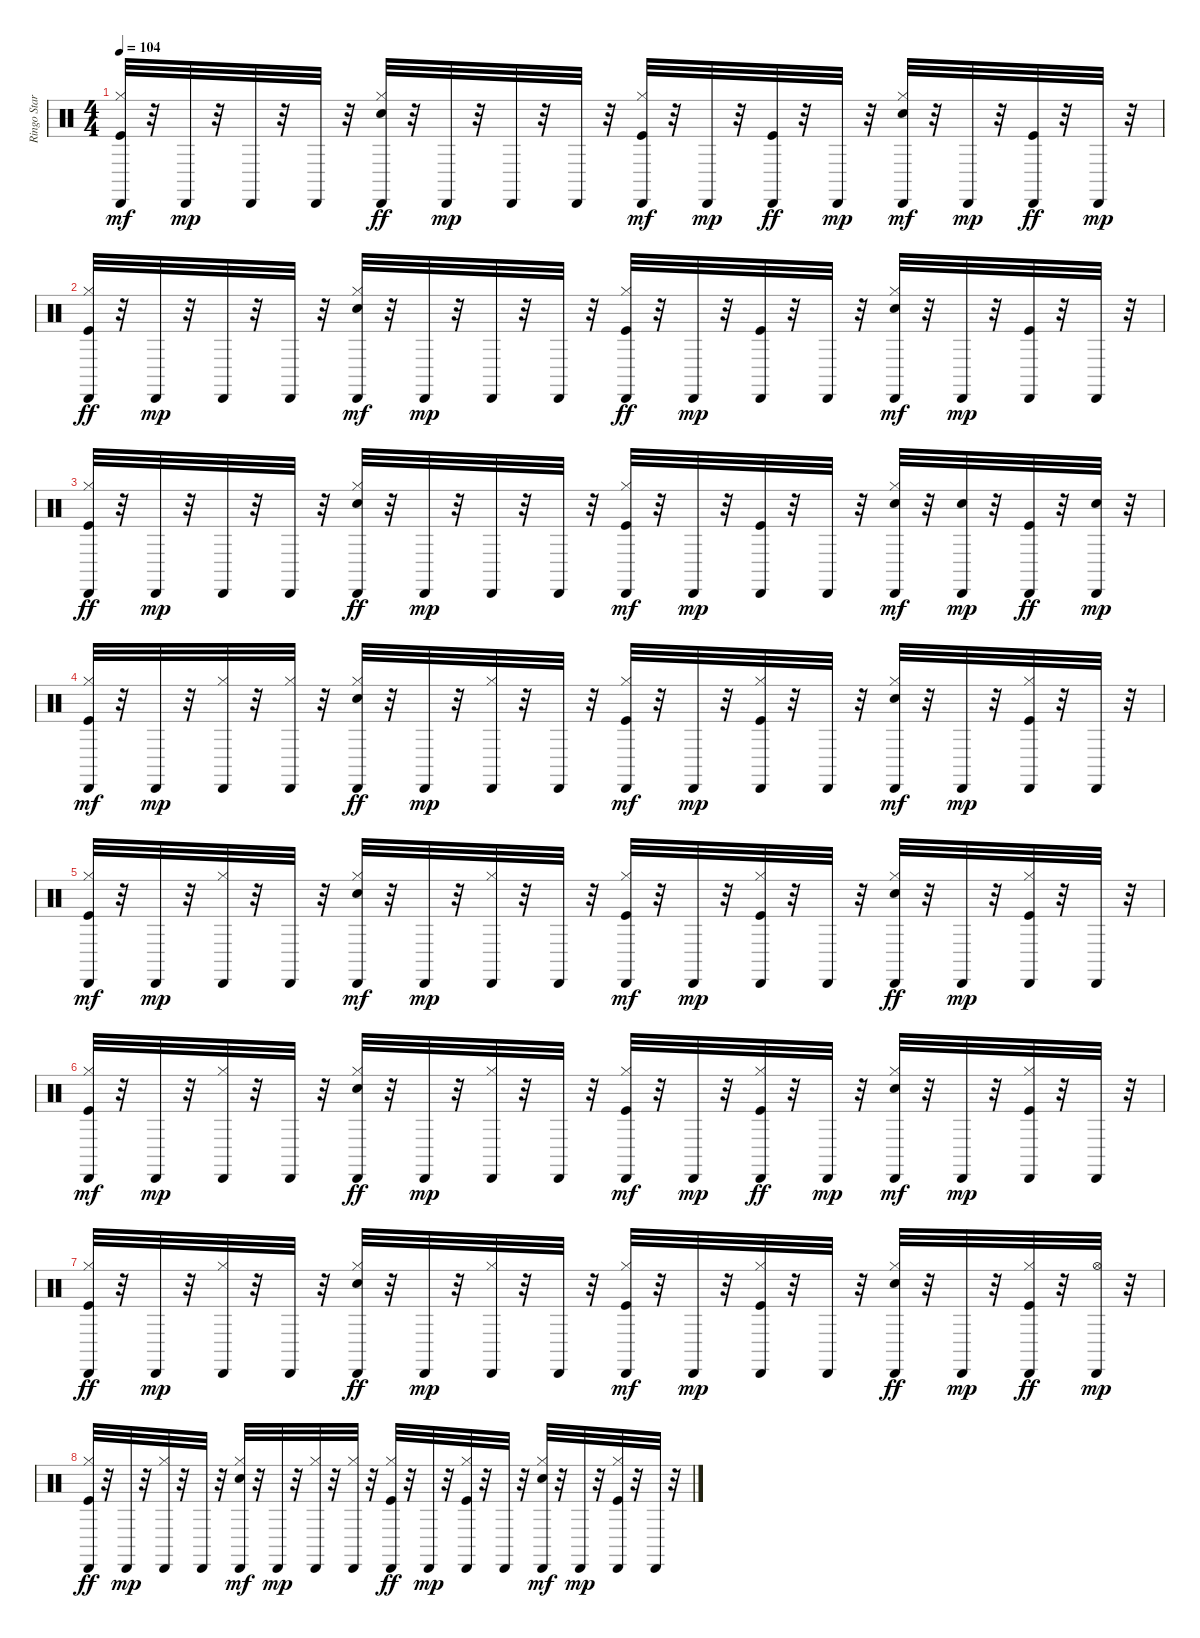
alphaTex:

\track ("Ringo Starr - Drums" "Ringo Star") {instrument percussion}
\staff {score}
\articulation defaults
\ts (4 4)
\tempo 104
\clef neutral
\ks c
("Hi-Hat (closed)" "Kick (hit)" "Cabasa (hit)").32{dy mf} r.32 "Cabasa (hit)".32{dy mp} r.32 "Cabasa (hit)".32 r.32 "Cabasa (hit)".32 r.32 ("Hi-Hat (closed)" "Cabasa (hit)" "Snare (hit) 2").32{dy ff} r.32 "Cabasa (hit)".32{dy mp} r.32 "Cabasa (hit)".32 r.32 "Cabasa (hit)".32 r.32 ("Hi-Hat (closed)" "Kick (hit)" "Cabasa (hit)").32{dy mf} r.32 "Cabasa (hit)".32{dy mp} r.32 ("Cabasa (hit)" "Kick (hit)").32{dy ff} r.32 "Cabasa (hit)".32{dy mp} r.32 ("Hi-Hat (closed)" "Snare (hit) 2" "Cabasa (hit)").32{dy mf} r.32 "Cabasa (hit)".32{dy mp} r.32 ("Cabasa (hit)" "Kick (hit)").32{dy ff} r.32 "Cabasa (hit)".32{dy mp} r.32 |
("Hi-Hat (closed)" "Cabasa (hit)" "Kick (hit)").32{dy ff} r.32 "Cabasa (hit)".32{dy mp} r.32 "Cabasa (hit)".32 r.32 "Cabasa (hit)".32 r.32 ("Hi-Hat (closed)" "Snare (hit) 2" "Cabasa (hit)").32{dy mf} r.32 "Cabasa (hit)".32{dy mp} r.32 "Cabasa (hit)".32 r.32 "Cabasa (hit)".32 r.32 ("Hi-Hat (closed)" "Cabasa (hit)" "Kick (hit)").32{dy ff} r.32 "Cabasa (hit)".32{dy mp} r.32 ("Kick (hit)" "Cabasa (hit)").32 r.32 "Cabasa (hit)".32 r.32 ("Hi-Hat (closed)" "Snare (hit) 2" "Cabasa (hit)").32{dy mf} r.32 "Cabasa (hit)".32{dy mp} r.32 ("Kick (hit)" "Cabasa (hit)").32 r.32 "Cabasa (hit)".32 r.32 |
("Hi-Hat (closed)" "Cabasa (hit)" "Kick (hit)").32{dy ff} r.32 "Cabasa (hit)".32{dy mp} r.32 "Cabasa (hit)".32 r.32 "Cabasa (hit)".32 r.32 ("Hi-Hat (closed)" "Cabasa (hit)" "Snare (hit) 2").32{dy ff} r.32 "Cabasa (hit)".32{dy mp} r.32 "Cabasa (hit)".32 r.32 "Cabasa (hit)".32 r.32 ("Hi-Hat (closed)" "Kick (hit)" "Cabasa (hit)").32{dy mf} r.32 "Cabasa (hit)".32{dy mp} r.32 ("Kick (hit)" "Cabasa (hit)").32 r.32 "Cabasa (hit)".32 r.32 ("Hi-Hat (closed)" "Snare (hit) 2" "Cabasa (hit)").32{dy mf} r.32 ("Snare (hit) 2" "Cabasa (hit)").32{dy mp} r.32 ("Cabasa (hit)" "Kick (hit)").32{dy ff} r.32 ("Snare (hit) 2" "Cabasa (hit)").32{dy mp} r.32 |
("Hi-Hat (closed)" "Kick (hit)" "Cabasa (hit)").32{dy mf} r.32 "Cabasa (hit)".32{dy mp} r.32 ("Hi-Hat (closed)" "Cabasa (hit)").32 r.32 ("Hi-Hat (closed)" "Cabasa (hit)").32 r.32 ("Hi-Hat (closed)" "Cabasa (hit)" "Snare (hit) 2").32{dy ff} r.32 "Cabasa (hit)".32{dy mp} r.32 ("Hi-Hat (closed)" "Cabasa (hit)").32 r.32 "Cabasa (hit)".32 r.32 ("Hi-Hat (closed)" "Kick (hit)" "Cabasa (hit)").32{dy mf} r.32 "Cabasa (hit)".32{dy mp} r.32 ("Hi-Hat (closed)" "Kick (hit)" "Cabasa (hit)").32 r.32 "Cabasa (hit)".32 r.32 ("Hi-Hat (closed)" "Snare (hit) 2" "Cabasa (hit)").32{dy mf} r.32 "Cabasa (hit)".32{dy mp} r.32 ("Hi-Hat (closed)" "Kick (hit)" "Cabasa (hit)").32 r.32 "Cabasa (hit)".32 r.32 |
("Hi-Hat (closed)" "Kick (hit)" "Cabasa (hit)").32{dy mf} r.32 "Cabasa (hit)".32{dy mp} r.32 ("Hi-Hat (closed)" "Cabasa (hit)").32 r.32 "Cabasa (hit)".32 r.32 ("Hi-Hat (closed)" "Snare (hit) 2" "Cabasa (hit)").32{dy mf} r.32 "Cabasa (hit)".32{dy mp} r.32 ("Hi-Hat (closed)" "Cabasa (hit)").32 r.32 "Cabasa (hit)".32 r.32 ("Hi-Hat (closed)" "Kick (hit)" "Cabasa (hit)").32{dy mf} r.32 "Cabasa (hit)".32{dy mp} r.32 ("Hi-Hat (closed)" "Kick (hit)" "Cabasa (hit)").32 r.32 "Cabasa (hit)".32 r.32 ("Hi-Hat (closed)" "Cabasa (hit)" "Snare (hit) 2").32{dy ff} r.32 "Cabasa (hit)".32{dy mp} r.32 ("Hi-Hat (closed)" "Kick (hit)" "Cabasa (hit)").32 r.32 "Cabasa (hit)".32 r.32 |
("Hi-Hat (closed)" "Kick (hit)" "Cabasa (hit)").32{dy mf} r.32 "Cabasa (hit)".32{dy mp} r.32 ("Hi-Hat (closed)" "Cabasa (hit)").32 r.32 "Cabasa (hit)".32 r.32 ("Hi-Hat (closed)" "Cabasa (hit)" "Snare (hit) 2").32{dy ff} r.32 "Cabasa (hit)".32{dy mp} r.32 ("Hi-Hat (closed)" "Cabasa (hit)").32 r.32 "Cabasa (hit)".32 r.32 ("Hi-Hat (closed)" "Kick (hit)" "Cabasa (hit)").32{dy mf} r.32 "Cabasa (hit)".32{dy mp} r.32 ("Hi-Hat (closed)" "Cabasa (hit)" "Kick (hit)").32{dy ff} r.32 "Cabasa (hit)".32{dy mp} r.32 ("Hi-Hat (closed)" "Snare (hit) 2" "Cabasa (hit)").32{dy mf} r.32 "Cabasa (hit)".32{dy mp} r.32 ("Hi-Hat (closed)" "Kick (hit)" "Cabasa (hit)").32 r.32 "Cabasa (hit)".32 r.32 |
("Hi-Hat (closed)" "Cabasa (hit)" "Kick (hit)").32{dy ff} r.32 "Cabasa (hit)".32{dy mp} r.32 ("Hi-Hat (closed)" "Cabasa (hit)").32 r.32 "Cabasa (hit)".32 r.32 ("Hi-Hat (closed)" "Cabasa (hit)" "Snare (hit) 2").32{dy ff} r.32 "Cabasa (hit)".32{dy mp} r.32 ("Hi-Hat (closed)" "Cabasa (hit)").32 r.32 "Cabasa (hit)".32 r.32 ("Hi-Hat (closed)" "Kick (hit)" "Cabasa (hit)").32{dy mf} r.32 "Cabasa (hit)".32{dy mp} r.32 ("Hi-Hat (closed)" "Kick (hit)" "Cabasa (hit)").32 r.32 "Cabasa (hit)".32 r.32 ("Hi-Hat (closed)" "Cabasa (hit)" "Snare (hit) 2").32{dy ff} r.32 "Cabasa (hit)".32{dy mp} r.32 ("Hi-Hat (closed)" "Cabasa (hit)" "Kick (hit)").32{dy ff} r.32 ("Hi-Hat (open)" "Cabasa (hit)").32{dy mp} r.32 |
("Hi-Hat (closed)" "Cabasa (hit)" "Kick (hit)").32{dy ff} r.32 "Cabasa (hit)".32{dy mp} r.32 ("Hi-Hat (closed)" "Cabasa (hit)").32 r.32 "Cabasa (hit)".32 r.32 ("Hi-Hat (closed)" "Snare (hit) 2" "Cabasa (hit)").32{dy mf} r.32 "Cabasa (hit)".32{dy mp} r.32 ("Hi-Hat (closed)" "Cabasa (hit)").32 r.32 ("Hi-Hat (closed)" "Cabasa (hit)").32 r.32 ("Hi-Hat (closed)" "Cabasa (hit)" "Kick (hit)").32{dy ff} r.32 "Cabasa (hit)".32{dy mp} r.32 ("Hi-Hat (closed)" "Kick (hit)" "Cabasa (hit)").32 r.32 "Cabasa (hit)".32 r.32 ("Hi-Hat (closed)" "Snare (hit) 2" "Cabasa (hit)").32{dy mf} r.32 "Cabasa (hit)".32{dy mp} r.32 ("Hi-Hat (closed)" "Kick (hit)" "Cabasa (hit)").32 r.32 "Cabasa (hit)".32 r.32
